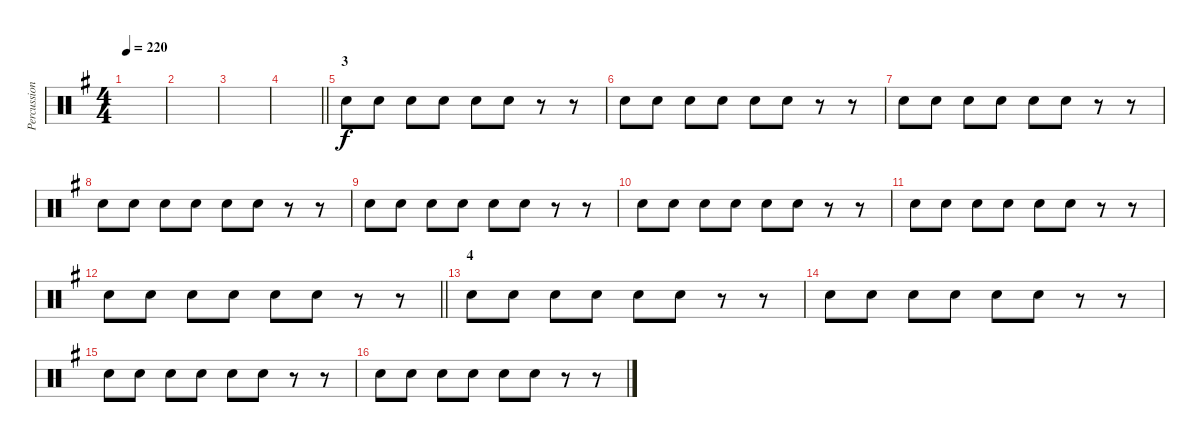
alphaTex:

\track ("Percussion" "Percussion") {instrument percussion}
\staff {score}
\articulation defaults
\ts (4 4)
\tempo 220
\clef neutral
\ks eminor
|
|
|
\barLineRight lightlight
|
\section ("" "3")
"Snare (hit) 2".8 "Snare (hit) 2".8 "Snare (hit) 2".8{beam merge} "Snare (hit) 2".8 "Snare (hit) 2".8 "Snare (hit) 2".8{beam merge} r.8 r.8 |
"Snare (hit) 2".8 "Snare (hit) 2".8 "Snare (hit) 2".8{beam merge} "Snare (hit) 2".8 "Snare (hit) 2".8 "Snare (hit) 2".8{beam merge} r.8 r.8 |
"Snare (hit) 2".8 "Snare (hit) 2".8 "Snare (hit) 2".8{beam merge} "Snare (hit) 2".8 "Snare (hit) 2".8 "Snare (hit) 2".8{beam merge} r.8 r.8 |
"Snare (hit) 2".8 "Snare (hit) 2".8 "Snare (hit) 2".8{beam merge} "Snare (hit) 2".8 "Snare (hit) 2".8 "Snare (hit) 2".8{beam merge} r.8 r.8 |
"Snare (hit) 2".8 "Snare (hit) 2".8 "Snare (hit) 2".8{beam merge} "Snare (hit) 2".8 "Snare (hit) 2".8 "Snare (hit) 2".8{beam merge} r.8 r.8 |
"Snare (hit) 2".8 "Snare (hit) 2".8 "Snare (hit) 2".8{beam merge} "Snare (hit) 2".8 "Snare (hit) 2".8 "Snare (hit) 2".8{beam merge} r.8 r.8 |
"Snare (hit) 2".8 "Snare (hit) 2".8 "Snare (hit) 2".8{beam merge} "Snare (hit) 2".8 "Snare (hit) 2".8 "Snare (hit) 2".8{beam merge} r.8 r.8 |
\barLineRight lightlight "Snare (hit) 2".8 "Snare (hit) 2".8 "Snare (hit) 2".8{beam merge} "Snare (hit) 2".8 "Snare (hit) 2".8 "Snare (hit) 2".8{beam merge}
r.8 r.8 |
\section ("" "4")
"Snare (hit) 2".8 "Snare (hit) 2".8 "Snare (hit) 2".8{beam merge} "Snare (hit) 2".8 "Snare (hit) 2".8 "Snare (hit) 2".8{beam merge} r.8 r.8 |
"Snare (hit) 2".8 "Snare (hit) 2".8 "Snare (hit) 2".8{beam merge} "Snare (hit) 2".8 "Snare (hit) 2".8 "Snare (hit) 2".8{beam merge} r.8 r.8 |
"Snare (hit) 2".8 "Snare (hit) 2".8 "Snare (hit) 2".8{beam merge} "Snare (hit) 2".8 "Snare (hit) 2".8 "Snare (hit) 2".8{beam merge} r.8 r.8 |
"Snare (hit) 2".8 "Snare (hit) 2".8 "Snare (hit) 2".8{beam merge} "Snare (hit) 2".8 "Snare (hit) 2".8 "Snare (hit) 2".8{beam merge} r.8 r.8
